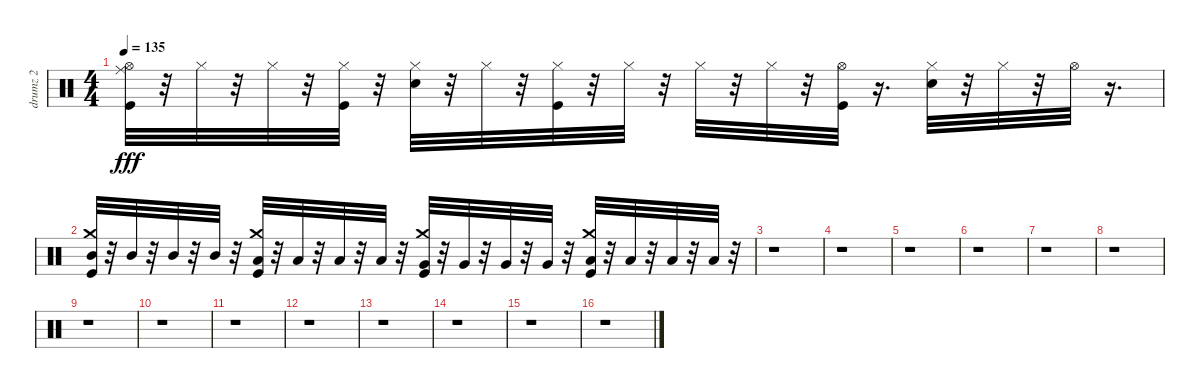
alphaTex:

\track ("drumz 2" "drumz 2") {instrument percussion}
\staff {score}
\articulation defaults
\ts (4 4)
\tempo 135
\clef neutral
\ks c
("Ride (middle)" "Hi-Hat (open)" "Kick (hit)").32{dy fff} r.32 "Hi-Hat (closed)".32 r.32 "Hi-Hat (closed)".32 r.32 ("Hi-Hat (closed)" "Kick (hit)").32 r.32 ("Hi-Hat (closed)" "Electric Snare (hit)").32 r.32 "Hi-Hat (closed)".32 r.32 ("Kick (hit)" "Hi-Hat (closed)").32 r.32 "Hi-Hat (closed)".32 r.32 "Hi-Hat (closed)".32 r.32 "Hi-Hat (closed)".32 r.32 ("Kick (hit)" "Hi-Hat (open)").32 r.16{d} ("Electric Snare (hit)" "Hi-Hat (closed)").32 r.32 "Hi-Hat (closed)".32 r.32 "Hi-Hat (open)".32 r.16{d} |
("Crash medium (hit)" "Mid Tom (hit)" "Kick (hit)").32 r.32 "Mid Tom (hit)".32 r.32 "Mid Tom (hit)".32 r.32 "Mid Tom (hit)".32 r.32 ("Crash medium (hit)" "Kick (hit)" "Low Tom (hit)").32 r.32 "Low Tom (hit)".32 r.32 "Low Tom (hit)".32 r.32 "Low Tom (hit)".32 r.32 ("Crash medium (hit)" "Kick (hit)" "Very Low Tom (hit)").32 r.32 "Very Low Tom (hit)".32 r.32 "Very Low Tom (hit)".32 r.32 "Very Low Tom (hit)".32 r.32 ("Kick (hit)" "Low Floor Tom (hit)" "Crash medium (hit)").32 r.32 "Low Floor Tom (hit)".32 r.32 "Low Floor Tom (hit)".32 r.32 "Low Floor Tom (hit)".32 r.32 |
r.1 |
r.1 |
r.1 |
r.1 |
r.1 |
r.1 |
r.1 |
r.1 |
r.1 |
r.1 |
r.1 |
r.1 |
r.1 |
r.1
